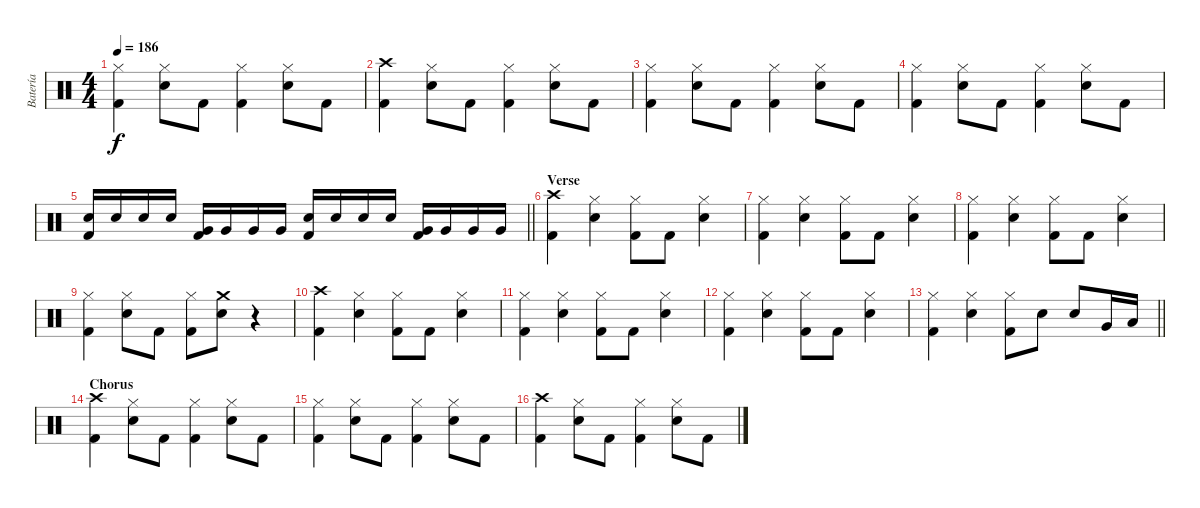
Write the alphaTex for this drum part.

\track ("Batería" "Batería") {instrument percussion}
\staff {score}
\articulation defaults
\ts (4 4)
\tempo 186
\clef neutral
\ks c
("Hi-Hat (closed)" "Kick (hit) 2").4{dy f} ("Hi-Hat (closed)" "Snare (hit) 2").8 "Kick (hit) 2".8 ("Hi-Hat (closed)" "Kick (hit) 2").4 ("Hi-Hat (closed)" "Snare (hit) 2").8 "Kick (hit) 2".8 |
("Crash high (hit)" "Kick (hit) 2").4 ("Hi-Hat (closed)" "Snare (hit) 2").8 "Kick (hit) 2".8 ("Hi-Hat (closed)" "Kick (hit) 2").4 ("Hi-Hat (closed)" "Snare (hit) 2").8 "Kick (hit) 2".8 |
("Hi-Hat (closed)" "Kick (hit) 2").4 ("Hi-Hat (closed)" "Snare (hit) 2").8 "Kick (hit) 2".8 ("Hi-Hat (closed)" "Kick (hit) 2").4 ("Hi-Hat (closed)" "Snare (hit) 2").8 "Kick (hit) 2".8 |
("Hi-Hat (closed)" "Kick (hit) 2").4 ("Hi-Hat (closed)" "Snare (hit) 2").8 "Kick (hit) 2".8 ("Hi-Hat (closed)" "Kick (hit) 2").4 ("Hi-Hat (closed)" "Snare (hit) 2").8 "Kick (hit) 2".8 |
\barLineRight lightlight
("Snare (hit) 2" "Kick (hit) 2").16 "Snare (hit) 2".16 "Snare (hit) 2".16 "Snare (hit) 2".16 ("Very Low Tom (hit)" "Kick (hit) 2").16 "Very Low Tom (hit)".16 "Very Low Tom (hit)".16 "Very Low Tom (hit)".16 ("Snare (hit) 2" "Kick (hit) 2").16 "Snare (hit) 2".16 "Snare (hit) 2".16 "Snare (hit) 2".16 ("Very Low Tom (hit)" "Kick (hit) 2").16 "Very Low Tom (hit)".16 "Very Low Tom (hit)".16 "Very Low Tom (hit)".16 |
\section ("" "Verse")
("Crash high (hit)" "Kick (hit) 2").4 ("Hi-Hat (closed)" "Snare (hit) 2").4 ("Hi-Hat (closed)" "Kick (hit) 2").8 "Kick (hit) 2".8 ("Hi-Hat (closed)" "Snare (hit) 2").4 |
("Hi-Hat (closed)" "Kick (hit) 2").4 ("Hi-Hat (closed)" "Snare (hit) 2").4 ("Hi-Hat (closed)" "Kick (hit) 2").8 "Kick (hit) 2".8 ("Hi-Hat (closed)" "Snare (hit) 2").4 |
("Hi-Hat (closed)" "Kick (hit) 2").4 ("Hi-Hat (closed)" "Snare (hit) 2").4 ("Hi-Hat (closed)" "Kick (hit) 2").8 "Kick (hit) 2".8 ("Hi-Hat (closed)" "Snare (hit) 2").4 |
("Hi-Hat (closed)" "Kick (hit) 2").4 ("Hi-Hat (closed)" "Snare (hit) 2").8 "Kick (hit) 2".8 ("Hi-Hat (closed)" "Kick (hit) 2").8 ("Crash medium (hit)" "Snare (hit) 2").8 r.4 |
("Crash high (hit)" "Kick (hit) 2").4 ("Hi-Hat (closed)" "Snare (hit) 2").4 ("Hi-Hat (closed)" "Kick (hit) 2").8 "Kick (hit) 2".8 ("Hi-Hat (closed)" "Snare (hit) 2").4 |
("Hi-Hat (closed)" "Kick (hit) 2").4 ("Hi-Hat (closed)" "Snare (hit) 2").4 ("Hi-Hat (closed)" "Kick (hit) 2").8 "Kick (hit) 2".8 ("Hi-Hat (closed)" "Snare (hit) 2").4 |
("Hi-Hat (closed)" "Kick (hit) 2").4 ("Hi-Hat (closed)" "Snare (hit) 2").4 ("Hi-Hat (closed)" "Kick (hit) 2").8 "Kick (hit) 2".8 ("Hi-Hat (closed)" "Snare (hit) 2").4 |
\barLineRight lightlight
("Hi-Hat (closed)" "Kick (hit) 2").4 ("Hi-Hat (closed)" "Snare (hit) 2").4 ("Hi-Hat (closed)" "Kick (hit) 2").8 "Snare (hit) 2".8 "Snare (hit) 2".8 "Very Low Tom (hit)".16 "Low Floor Tom (hit)".16 |
\section ("" "Chorus")
("Crash high (hit)" "Kick (hit) 2").4 ("Hi-Hat (closed)" "Snare (hit) 2").8 "Kick (hit) 2".8 ("Hi-Hat (closed)" "Kick (hit) 2").4 ("Hi-Hat (closed)" "Snare (hit) 2").8 "Kick (hit) 2".8 |
("Hi-Hat (closed)" "Kick (hit) 2").4 ("Hi-Hat (closed)" "Snare (hit) 2").8 "Kick (hit) 2".8 ("Hi-Hat (closed)" "Kick (hit) 2").4 ("Hi-Hat (closed)" "Snare (hit) 2").8 "Kick (hit) 2".8 |
("Crash high (hit)" "Kick (hit) 2").4 ("Hi-Hat (closed)" "Snare (hit) 2").8 "Kick (hit) 2".8 ("Hi-Hat (closed)" "Kick (hit) 2").4 ("Hi-Hat (closed)" "Snare (hit) 2").8 "Kick (hit) 2".8
